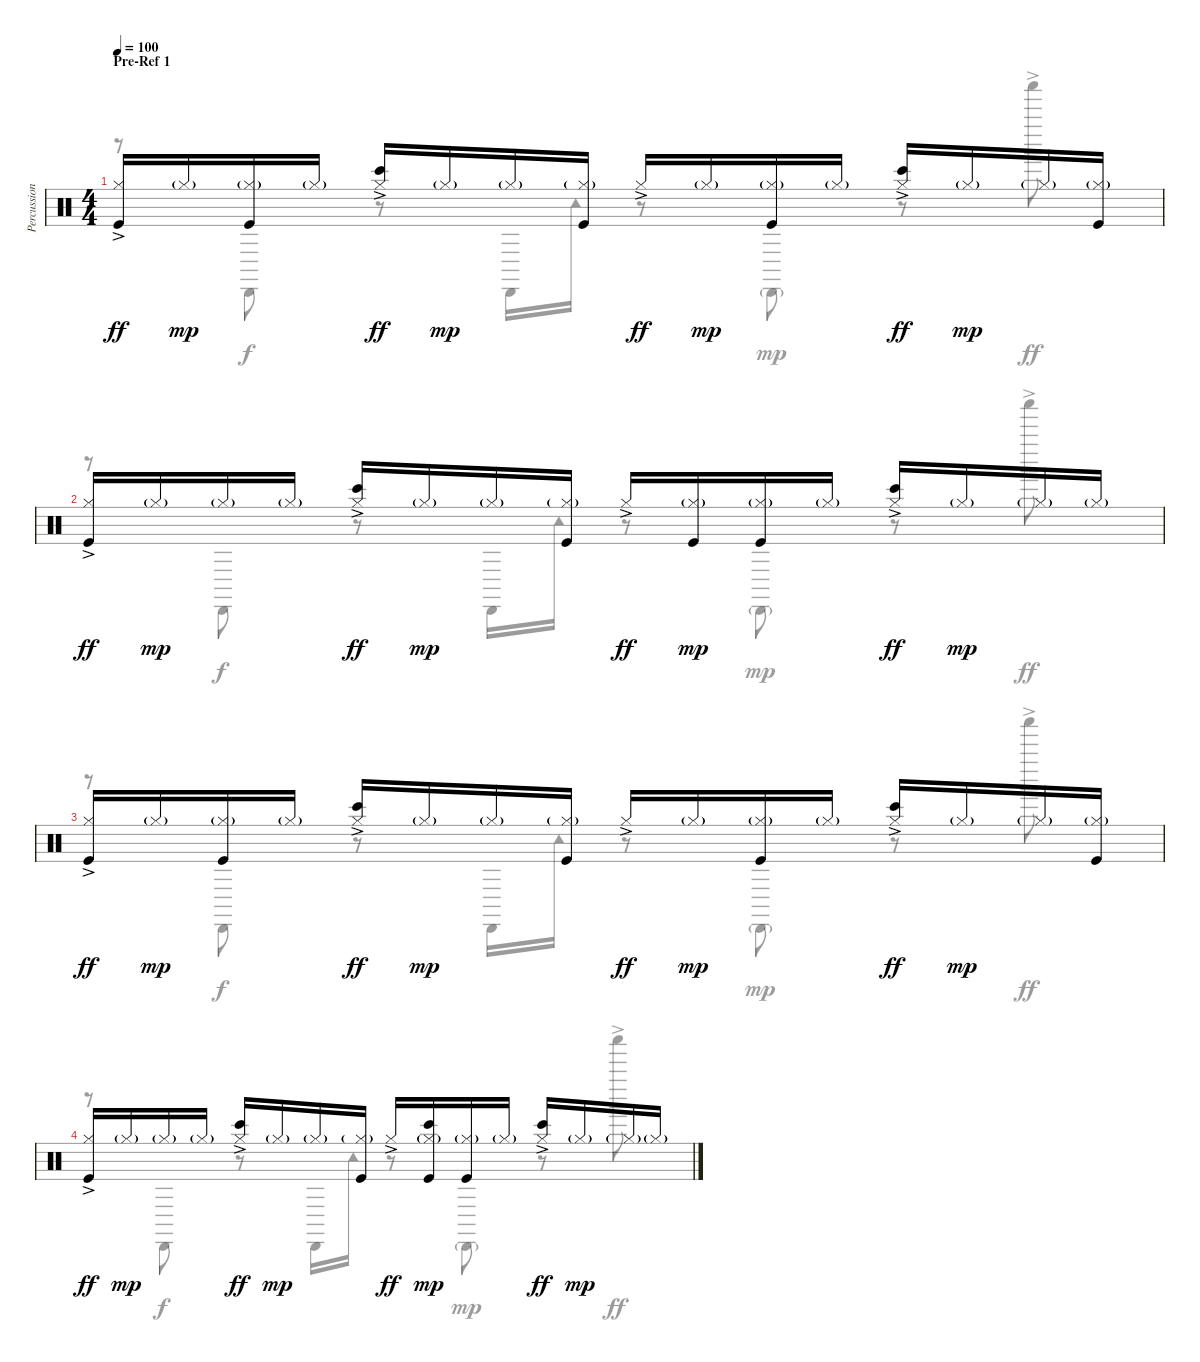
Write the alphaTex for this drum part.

\track ("Percussions" "Percussion") {instrument percussion}
\staff {score}
\articulation defaults
\voice
\ts (4 4)
\section ("" "Pre-Ref 1")
\tempo 100
\clef neutral
\ks c
("Kick (hit)" "Hi-Hat (closed)"{ac}).16{dy ff} "Hi-Hat (closed)"{g}.16{dy mp} ("Kick (hit)" "Hi-Hat (closed)"{g}).16 "Hi-Hat (closed)"{g}.16 ("Bongo High (hit)" "Hi-Hat (closed)"{ac}).16{dy ff} "Hi-Hat (closed)"{g}.16{dy mp} "Hi-Hat (closed)"{g}.16 ("Kick (hit)" "Hi-Hat (closed)"{g}).16 "Hi-Hat (closed)"{ac}.16{dy ff} "Hi-Hat (closed)"{g}.16{dy mp} ("Kick (hit)" "Hi-Hat (closed)"{g}).16 "Hi-Hat (closed)"{g}.16 ("Bongo High (hit)" "Hi-Hat (closed)"{ac}).16{dy ff} "Hi-Hat (closed)"{g}.16{dy mp} "Hi-Hat (closed)"{g}.16 ("Kick (hit)" "Hi-Hat (closed)"{g}).16 |
("Kick (hit)" "Hi-Hat (closed)"{ac}).16{dy ff} "Hi-Hat (closed)"{g}.16{dy mp} "Hi-Hat (closed)"{g}.16 "Hi-Hat (closed)"{g}.16 ("Bongo High (hit)" "Hi-Hat (closed)"{ac}).16{dy ff} "Hi-Hat (closed)"{g}.16{dy mp} "Hi-Hat (closed)"{g}.16 ("Kick (hit)" "Hi-Hat (closed)"{g}).16 "Hi-Hat (closed)"{ac}.16{dy ff} ("Kick (hit)" "Hi-Hat (closed)"{g}).16{dy mp} ("Kick (hit)" "Hi-Hat (closed)"{g}).16 "Hi-Hat (closed)"{g}.16 ("Bongo High (hit)" "Hi-Hat (closed)"{ac}).16{dy ff} "Hi-Hat (closed)"{g}.16{dy mp} "Hi-Hat (closed)"{g}.16 "Hi-Hat (closed)"{g}.16 |
("Kick (hit)" "Hi-Hat (closed)"{ac}).16{dy ff} "Hi-Hat (closed)"{g}.16{dy mp} ("Kick (hit)" "Hi-Hat (closed)"{g}).16 "Hi-Hat (closed)"{g}.16 ("Bongo High (hit)" "Hi-Hat (closed)"{ac}).16{dy ff} "Hi-Hat (closed)"{g}.16{dy mp} "Hi-Hat (closed)"{g}.16 ("Kick (hit)" "Hi-Hat (closed)"{g}).16 "Hi-Hat (closed)"{ac}.16{dy ff} "Hi-Hat (closed)"{g}.16{dy mp} ("Kick (hit)" "Hi-Hat (closed)"{g}).16 "Hi-Hat (closed)"{g}.16 ("Bongo High (hit)" "Hi-Hat (closed)"{ac}).16{dy ff} "Hi-Hat (closed)"{g}.16{dy mp} "Hi-Hat (closed)"{g}.16 ("Kick (hit)" "Hi-Hat (closed)"{g}).16 |
("Kick (hit)" "Hi-Hat (closed)"{ac}).16{dy ff} "Hi-Hat (closed)"{g}.16{dy mp} "Hi-Hat (closed)"{g}.16 "Hi-Hat (closed)"{g}.16 ("Bongo High (hit)" "Hi-Hat (closed)"{ac}).16{dy ff} "Hi-Hat (closed)"{g}.16{dy mp} "Hi-Hat (closed)"{g}.16 ("Kick (hit)" "Hi-Hat (closed)"{g}).16 "Hi-Hat (closed)"{ac}.16{dy ff} ("Kick (hit)" "Bongo High (hit)" "Hi-Hat (closed)"{g}).16{dy mp} ("Kick (hit)" "Hi-Hat (closed)"{g}).16 "Hi-Hat (closed)"{g}.16 ("Bongo High (hit)" "Hi-Hat (closed)"{ac}).16{dy ff} "Hi-Hat (closed)"{g}.16{dy mp} "Hi-Hat (closed)"{g}.16 "Hi-Hat (closed)"{g}.16
\voice
\clef neutral
\ottava regular
\simile none
\ks c
r.8{dy ff} "Cabasa (hit)".8{dy f} r.8 "Cabasa (hit)".16 "Tambourine (hit)".16 r.8 "Cabasa (hit)"{g}.8{dy mp} r.8 "Shaker (hit)"{ac}.8{dy ff} |
r.8 "Cabasa (hit)".8{dy f} r.8 "Cabasa (hit)".16 "Tambourine (hit)".16 r.8 "Cabasa (hit)"{g}.8{dy mp} r.8 "Shaker (hit)"{ac}.8{dy ff} |
r.8 "Cabasa (hit)".8{dy f} r.8 "Cabasa (hit)".16 "Tambourine (hit)".16 r.8 "Cabasa (hit)"{g}.8{dy mp} r.8 "Shaker (hit)"{ac}.8{dy ff} |
r.8 "Cabasa (hit)".8{dy f} r.8 "Cabasa (hit)".16 "Tambourine (hit)".16 r.8 "Cabasa (hit)"{g}.8{dy mp} r.8 "Shaker (hit)"{ac}.8{dy ff}
